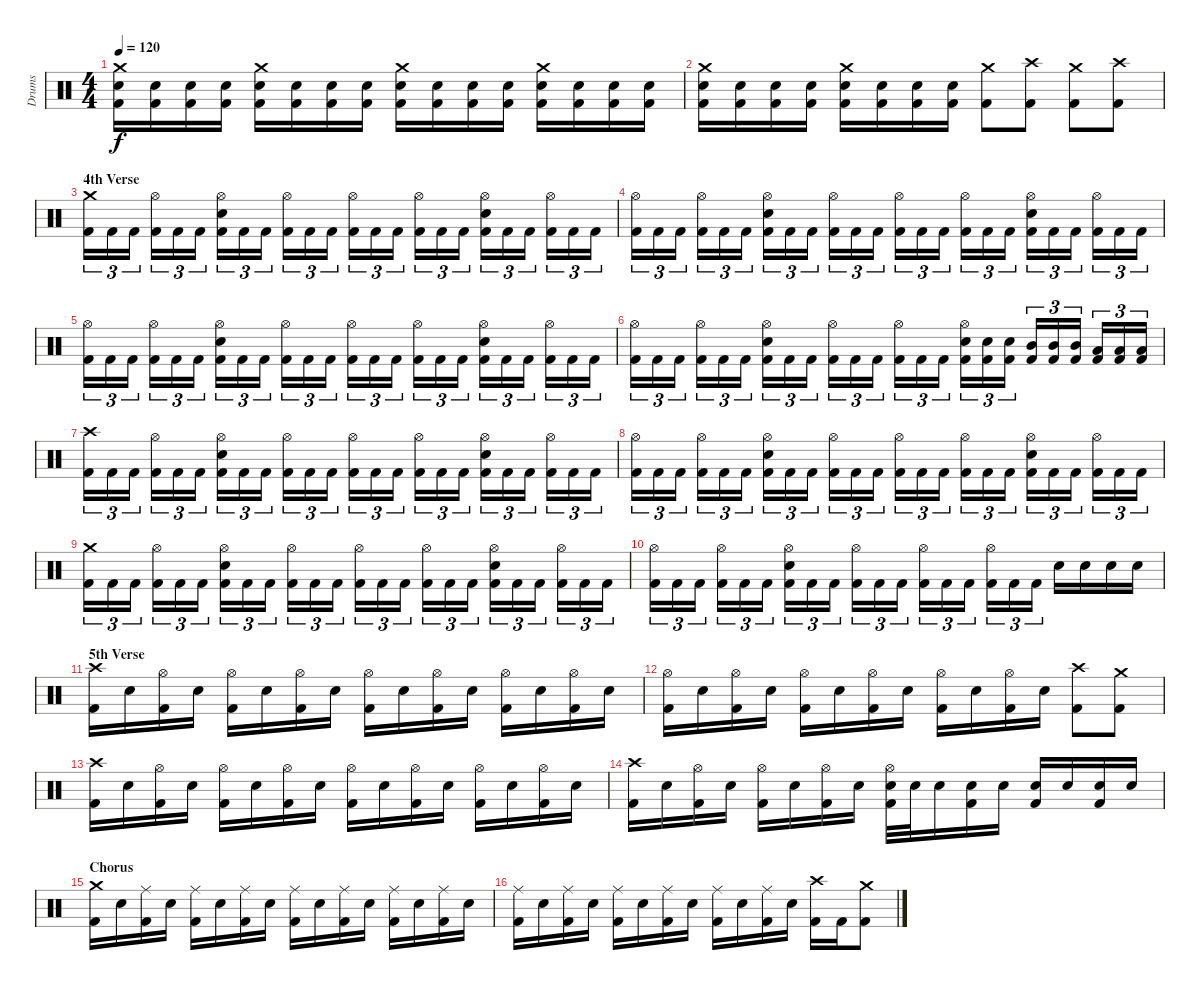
\track ("Drums" "Drums") {instrument percussion}
\staff {score}
\articulation defaults
\ts (4 4)
\tempo 120
\clef neutral
\ks c
("Kick (hit) 2" "Electric Snare (hit)" "Crash medium (hit)").16{dy f} ("Kick (hit) 2" "Electric Snare (hit)").16 ("Kick (hit) 2" "Electric Snare (hit)").16 ("Kick (hit) 2" "Electric Snare (hit)").16 ("Kick (hit) 2" "Electric Snare (hit)" "Crash medium (hit)").16 ("Kick (hit) 2" "Electric Snare (hit)").16 ("Kick (hit) 2" "Electric Snare (hit)").16 ("Kick (hit) 2" "Electric Snare (hit)").16 ("Kick (hit) 2" "Electric Snare (hit)" "Crash medium (hit)").16 ("Kick (hit) 2" "Electric Snare (hit)").16 ("Kick (hit) 2" "Electric Snare (hit)").16 ("Kick (hit) 2" "Electric Snare (hit)").16 ("Kick (hit) 2" "Electric Snare (hit)" "Crash medium (hit)").16 ("Kick (hit) 2" "Electric Snare (hit)").16 ("Kick (hit) 2" "Electric Snare (hit)").16 ("Kick (hit) 2" "Electric Snare (hit)").16 |
("Kick (hit) 2" "Electric Snare (hit)" "Crash medium (hit)").16 ("Kick (hit) 2" "Electric Snare (hit)").16 ("Kick (hit) 2" "Electric Snare (hit)").16 ("Kick (hit) 2" "Electric Snare (hit)").16 ("Kick (hit) 2" "Electric Snare (hit)" "Crash medium (hit)").16 ("Kick (hit) 2" "Electric Snare (hit)").16 ("Kick (hit) 2" "Electric Snare (hit)").16 ("Kick (hit) 2" "Electric Snare (hit)").16 ("Kick (hit) 2" "Crash medium (hit)").8 ("Kick (hit) 2" "Crash high (hit)").8 ("Kick (hit) 2" "Crash medium (hit)").8 ("Kick (hit) 2" "Crash high (hit)").8 |
\section ("" "4th Verse")
("Kick (hit) 2" "Crash medium (hit)").16{tu (3 2)} "Kick (hit) 2".16{tu (3 2)} "Kick (hit) 2".16{tu (3 2)} ("Kick (hit) 2" "Hi-Hat (open)").16{tu (3 2)} "Kick (hit) 2".16{tu (3 2)} "Kick (hit) 2".16{tu (3 2)} ("Kick (hit) 2" "Electric Snare (hit)" "Hi-Hat (open)").16{tu (3 2)} "Kick (hit) 2".16{tu (3 2)} "Kick (hit) 2".16{tu (3 2)} ("Kick (hit) 2" "Hi-Hat (open)").16{tu (3 2)} "Kick (hit) 2".16{tu (3 2)} "Kick (hit) 2".16{tu (3 2)} ("Kick (hit) 2" "Hi-Hat (open)").16{tu (3 2)} "Kick (hit) 2".16{tu (3 2)} "Kick (hit) 2".16{tu (3 2)} ("Kick (hit) 2" "Hi-Hat (open)").16{tu (3 2)} "Kick (hit) 2".16{tu (3 2)} "Kick (hit) 2".16{tu (3 2)} ("Kick (hit) 2" "Electric Snare (hit)" "Hi-Hat (open)").16{tu (3 2)} "Kick (hit) 2".16{tu (3 2)} "Kick (hit) 2".16{tu (3 2)} ("Kick (hit) 2" "Hi-Hat (open)").16{tu (3 2)} "Kick (hit) 2".16{tu (3 2)} "Kick (hit) 2".16{tu (3 2)} |
("Kick (hit) 2" "Hi-Hat (open)").16{tu (3 2)} "Kick (hit) 2".16{tu (3 2)} "Kick (hit) 2".16{tu (3 2)} ("Kick (hit) 2" "Hi-Hat (open)").16{tu (3 2)} "Kick (hit) 2".16{tu (3 2)} "Kick (hit) 2".16{tu (3 2)} ("Kick (hit) 2" "Electric Snare (hit)" "Hi-Hat (open)").16{tu (3 2)} "Kick (hit) 2".16{tu (3 2)} "Kick (hit) 2".16{tu (3 2)} ("Kick (hit) 2" "Hi-Hat (open)").16{tu (3 2)} "Kick (hit) 2".16{tu (3 2)} "Kick (hit) 2".16{tu (3 2)} ("Kick (hit) 2" "Hi-Hat (open)").16{tu (3 2)} "Kick (hit) 2".16{tu (3 2)} "Kick (hit) 2".16{tu (3 2)} ("Kick (hit) 2" "Hi-Hat (open)").16{tu (3 2)} "Kick (hit) 2".16{tu (3 2)} "Kick (hit) 2".16{tu (3 2)} ("Kick (hit) 2" "Electric Snare (hit)" "Hi-Hat (open)").16{tu (3 2)} "Kick (hit) 2".16{tu (3 2)} "Kick (hit) 2".16{tu (3 2)} ("Kick (hit) 2" "Hi-Hat (open)").16{tu (3 2)} "Kick (hit) 2".16{tu (3 2)} "Kick (hit) 2".16{tu (3 2)} |
("Kick (hit) 2" "Hi-Hat (open)").16{tu (3 2)} "Kick (hit) 2".16{tu (3 2)} "Kick (hit) 2".16{tu (3 2)} ("Kick (hit) 2" "Hi-Hat (open)").16{tu (3 2)} "Kick (hit) 2".16{tu (3 2)} "Kick (hit) 2".16{tu (3 2)} ("Kick (hit) 2" "Electric Snare (hit)" "Hi-Hat (open)").16{tu (3 2)} "Kick (hit) 2".16{tu (3 2)} "Kick (hit) 2".16{tu (3 2)} ("Kick (hit) 2" "Hi-Hat (open)").16{tu (3 2)} "Kick (hit) 2".16{tu (3 2)} "Kick (hit) 2".16{tu (3 2)} ("Kick (hit) 2" "Hi-Hat (open)").16{tu (3 2)} "Kick (hit) 2".16{tu (3 2)} "Kick (hit) 2".16{tu (3 2)} ("Kick (hit) 2" "Hi-Hat (open)").16{tu (3 2)} "Kick (hit) 2".16{tu (3 2)} "Kick (hit) 2".16{tu (3 2)} ("Kick (hit) 2" "Electric Snare (hit)" "Hi-Hat (open)").16{tu (3 2)} "Kick (hit) 2".16{tu (3 2)} "Kick (hit) 2".16{tu (3 2)} ("Kick (hit) 2" "Hi-Hat (open)").16{tu (3 2)} "Kick (hit) 2".16{tu (3 2)} "Kick (hit) 2".16{tu (3 2)} |
("Kick (hit) 2" "Hi-Hat (open)").16{tu (3 2)} "Kick (hit) 2".16{tu (3 2)} "Kick (hit) 2".16{tu (3 2)} ("Kick (hit) 2" "Hi-Hat (open)").16{tu (3 2)} "Kick (hit) 2".16{tu (3 2)} "Kick (hit) 2".16{tu (3 2)} ("Kick (hit) 2" "Electric Snare (hit)" "Hi-Hat (open)").16{tu (3 2)} "Kick (hit) 2".16{tu (3 2)} "Kick (hit) 2".16{tu (3 2)} ("Kick (hit) 2" "Hi-Hat (open)").16{tu (3 2)} "Kick (hit) 2".16{tu (3 2)} "Kick (hit) 2".16{tu (3 2)} ("Kick (hit) 2" "Hi-Hat (open)").16{tu (3 2)} "Kick (hit) 2".16{tu (3 2)} "Kick (hit) 2".16{tu (3 2)} ("Kick (hit) 2" "Electric Snare (hit)" "Hi-Hat (open)").16{tu (3 2)} ("Kick (hit) 2" "Electric Snare (hit)").16{tu (3 2)} ("Kick (hit) 2" "Electric Snare (hit)").16{tu (3 2)} ("Kick (hit) 2" "Mid Tom (hit)").16{tu (3 2)} ("Kick (hit) 2" "Mid Tom (hit)").16{tu (3 2)} ("Kick (hit) 2" "Mid Tom (hit)").16{tu (3 2)} ("Kick (hit) 2" "Low Tom (hit)").16{tu (3 2)} ("Kick (hit) 2" "Low Tom (hit)").16{tu (3 2)} ("Kick (hit) 2" "Low Tom (hit)").16{tu (3 2)} |
("Kick (hit) 2" "Crash high (hit)").16{tu (3 2)} "Kick (hit) 2".16{tu (3 2)} "Kick (hit) 2".16{tu (3 2)} ("Kick (hit) 2" "Hi-Hat (open)").16{tu (3 2)} "Kick (hit) 2".16{tu (3 2)} "Kick (hit) 2".16{tu (3 2)} ("Kick (hit) 2" "Electric Snare (hit)" "Hi-Hat (open)").16{tu (3 2)} "Kick (hit) 2".16{tu (3 2)} "Kick (hit) 2".16{tu (3 2)} ("Kick (hit) 2" "Hi-Hat (open)").16{tu (3 2)} "Kick (hit) 2".16{tu (3 2)} "Kick (hit) 2".16{tu (3 2)} ("Kick (hit) 2" "Hi-Hat (open)").16{tu (3 2)} "Kick (hit) 2".16{tu (3 2)} "Kick (hit) 2".16{tu (3 2)} ("Kick (hit) 2" "Hi-Hat (open)").16{tu (3 2)} "Kick (hit) 2".16{tu (3 2)} "Kick (hit) 2".16{tu (3 2)} ("Kick (hit) 2" "Electric Snare (hit)" "Hi-Hat (open)").16{tu (3 2)} "Kick (hit) 2".16{tu (3 2)} "Kick (hit) 2".16{tu (3 2)} ("Kick (hit) 2" "Hi-Hat (open)").16{tu (3 2)} "Kick (hit) 2".16{tu (3 2)} "Kick (hit) 2".16{tu (3 2)} |
("Kick (hit) 2" "Hi-Hat (open)").16{tu (3 2)} "Kick (hit) 2".16{tu (3 2)} "Kick (hit) 2".16{tu (3 2)} ("Kick (hit) 2" "Hi-Hat (open)").16{tu (3 2)} "Kick (hit) 2".16{tu (3 2)} "Kick (hit) 2".16{tu (3 2)} ("Kick (hit) 2" "Electric Snare (hit)" "Hi-Hat (open)").16{tu (3 2)} "Kick (hit) 2".16{tu (3 2)} "Kick (hit) 2".16{tu (3 2)} ("Kick (hit) 2" "Hi-Hat (open)").16{tu (3 2)} "Kick (hit) 2".16{tu (3 2)} "Kick (hit) 2".16{tu (3 2)} ("Kick (hit) 2" "Hi-Hat (open)").16{tu (3 2)} "Kick (hit) 2".16{tu (3 2)} "Kick (hit) 2".16{tu (3 2)} ("Kick (hit) 2" "Hi-Hat (open)").16{tu (3 2)} "Kick (hit) 2".16{tu (3 2)} "Kick (hit) 2".16{tu (3 2)} ("Kick (hit) 2" "Electric Snare (hit)" "Hi-Hat (open)").16{tu (3 2)} "Kick (hit) 2".16{tu (3 2)} "Kick (hit) 2".16{tu (3 2)} ("Kick (hit) 2" "Hi-Hat (open)").16{tu (3 2)} "Kick (hit) 2".16{tu (3 2)} "Kick (hit) 2".16{tu (3 2)} |
("Kick (hit) 2" "Crash medium (hit)").16{tu (3 2)} "Kick (hit) 2".16{tu (3 2)} "Kick (hit) 2".16{tu (3 2)} ("Kick (hit) 2" "Hi-Hat (open)").16{tu (3 2)} "Kick (hit) 2".16{tu (3 2)} "Kick (hit) 2".16{tu (3 2)} ("Kick (hit) 2" "Electric Snare (hit)" "Hi-Hat (open)").16{tu (3 2)} "Kick (hit) 2".16{tu (3 2)} "Kick (hit) 2".16{tu (3 2)} ("Kick (hit) 2" "Hi-Hat (open)").16{tu (3 2)} "Kick (hit) 2".16{tu (3 2)} "Kick (hit) 2".16{tu (3 2)} ("Kick (hit) 2" "Hi-Hat (open)").16{tu (3 2)} "Kick (hit) 2".16{tu (3 2)} "Kick (hit) 2".16{tu (3 2)} ("Kick (hit) 2" "Hi-Hat (open)").16{tu (3 2)} "Kick (hit) 2".16{tu (3 2)} "Kick (hit) 2".16{tu (3 2)} ("Kick (hit) 2" "Electric Snare (hit)" "Hi-Hat (open)").16{tu (3 2)} "Kick (hit) 2".16{tu (3 2)} "Kick (hit) 2".16{tu (3 2)} ("Kick (hit) 2" "Hi-Hat (open)").16{tu (3 2)} "Kick (hit) 2".16{tu (3 2)} "Kick (hit) 2".16{tu (3 2)} |
("Kick (hit) 2" "Hi-Hat (open)").16{tu (3 2)} "Kick (hit) 2".16{tu (3 2)} "Kick (hit) 2".16{tu (3 2)} ("Kick (hit) 2" "Hi-Hat (open)").16{tu (3 2)} "Kick (hit) 2".16{tu (3 2)} "Kick (hit) 2".16{tu (3 2)} ("Kick (hit) 2" "Electric Snare (hit)" "Hi-Hat (open)").16{tu (3 2)} "Kick (hit) 2".16{tu (3 2)} "Kick (hit) 2".16{tu (3 2)} ("Kick (hit) 2" "Hi-Hat (open)").16{tu (3 2)} "Kick (hit) 2".16{tu (3 2)} "Kick (hit) 2".16{tu (3 2)} ("Kick (hit) 2" "Hi-Hat (open)").16{tu (3 2)} "Kick (hit) 2".16{tu (3 2)} "Kick (hit) 2".16{tu (3 2)} ("Kick (hit) 2" "Hi-Hat (open)").16{tu (3 2)} "Kick (hit) 2".16{tu (3 2)} "Kick (hit) 2".16{tu (3 2)} "Electric Snare (hit)".16 "Electric Snare (hit)".16 "Electric Snare (hit)".16 "Electric Snare (hit)".16 |
\section ("" "5th Verse")
("Kick (hit) 2" "Crash high (hit)").16 "Electric Snare (hit)".16 ("Kick (hit) 2" "Hi-Hat (open)").16 "Electric Snare (hit)".16 ("Kick (hit) 2" "Hi-Hat (open)").16 "Electric Snare (hit)".16 ("Kick (hit) 2" "Hi-Hat (open)").16 "Electric Snare (hit)".16 ("Kick (hit) 2" "Hi-Hat (open)").16 "Electric Snare (hit)".16 ("Kick (hit) 2" "Hi-Hat (open)").16 "Electric Snare (hit)".16 ("Kick (hit) 2" "Hi-Hat (open)").16 "Electric Snare (hit)".16 ("Kick (hit) 2" "Hi-Hat (open)").16 "Electric Snare (hit)".16 |
("Kick (hit) 2" "Hi-Hat (open)").16 "Electric Snare (hit)".16 ("Kick (hit) 2" "Hi-Hat (open)").16 "Electric Snare (hit)".16 ("Kick (hit) 2" "Hi-Hat (open)").16 "Electric Snare (hit)".16 ("Kick (hit) 2" "Hi-Hat (open)").16 "Electric Snare (hit)".16 ("Kick (hit) 2" "Hi-Hat (open)").16 "Electric Snare (hit)".16 ("Kick (hit) 2" "Hi-Hat (open)").16 "Electric Snare (hit)".16 ("Kick (hit) 2" "Crash high (hit)").8 ("Kick (hit) 2" "Crash medium (hit)").8 |
("Kick (hit) 2" "Crash high (hit)").16 "Electric Snare (hit)".16 ("Kick (hit) 2" "Hi-Hat (open)").16 "Electric Snare (hit)".16 ("Kick (hit) 2" "Hi-Hat (open)").16 "Electric Snare (hit)".16 ("Kick (hit) 2" "Hi-Hat (open)").16 "Electric Snare (hit)".16 ("Kick (hit) 2" "Hi-Hat (open)").16 "Electric Snare (hit)".16 ("Kick (hit) 2" "Hi-Hat (open)").16 "Electric Snare (hit)".16 ("Kick (hit) 2" "Hi-Hat (open)").16 "Electric Snare (hit)".16 ("Kick (hit) 2" "Hi-Hat (open)").16 "Electric Snare (hit)".16 |
("Kick (hit) 2" "Crash high (hit)").16 "Electric Snare (hit)".16 ("Kick (hit) 2" "Hi-Hat (open)").16 "Electric Snare (hit)".16 ("Kick (hit) 2" "Hi-Hat (open)").16 "Electric Snare (hit)".16 ("Kick (hit) 2" "Hi-Hat (open)").16 "Electric Snare (hit)".16 ("Kick (hit) 2" "Electric Snare (hit)" "Hi-Hat (open)").32 "Electric Snare (hit)".32 "Electric Snare (hit)".16 ("Kick (hit) 2" "Electric Snare (hit)").16 "Electric Snare (hit)".16 ("Kick (hit) 2" "Electric Snare (hit)").16 "Electric Snare (hit)".16 ("Kick (hit) 2" "Electric Snare (hit)").16 "Electric Snare (hit)".16 |
\section ("" "Chorus")
("Kick (hit) 2" "Crash medium (hit)").16 "Electric Snare (hit)".16 ("Kick (hit) 2" "Ride (middle)").16 "Electric Snare (hit)".16 ("Kick (hit) 2" "Ride (middle)").16 "Electric Snare (hit)".16 ("Kick (hit) 2" "Ride (middle)").16 "Electric Snare (hit)".16 ("Kick (hit) 2" "Ride (middle)").16 "Electric Snare (hit)".16 ("Kick (hit) 2" "Ride (middle)").16 "Electric Snare (hit)".16 ("Kick (hit) 2" "Ride (middle)").16 "Electric Snare (hit)".16 ("Kick (hit) 2" "Ride (middle)").16 "Electric Snare (hit)".16 |
("Kick (hit) 2" "Ride (middle)").16 "Electric Snare (hit)".16 ("Kick (hit) 2" "Ride (middle)").16 "Electric Snare (hit)".16 ("Kick (hit) 2" "Ride (middle)").16 "Electric Snare (hit)".16 ("Kick (hit) 2" "Ride (middle)").16 "Electric Snare (hit)".16 ("Kick (hit) 2" "Ride (middle)").16 "Electric Snare (hit)".16 ("Kick (hit) 2" "Ride (middle)").16 "Electric Snare (hit)".16 ("Kick (hit) 2" "Crash high (hit)").16 "Kick (hit) 2".16 ("Kick (hit) 2" "Crash medium (hit)").8
